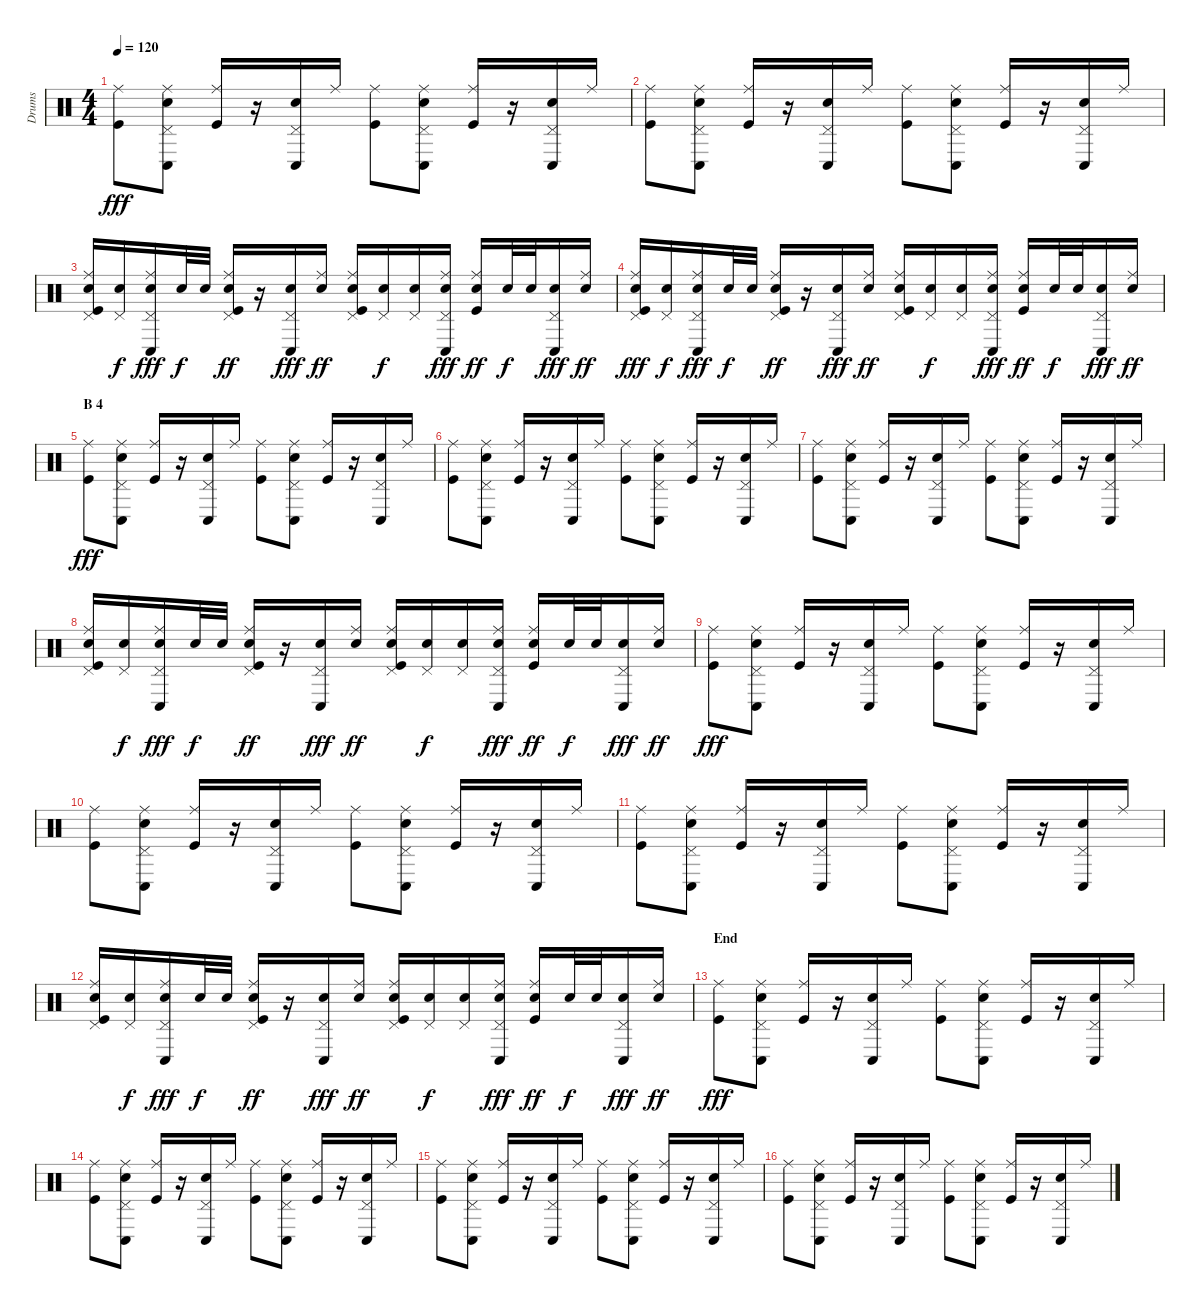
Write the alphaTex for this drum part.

\track ("Drums" "Drums") {instrument percussion}
\staff {score}
\articulation defaults
\ts (4 4)
\tempo 120
\clef neutral
\ks c
("Ride (middle)" "Kick (hit)").8{dy fff} ("Ride (middle)" "Pedal Hi-Hat (hit)" "Conga low (hit)" "Electric Snare (hit)").8 ("Ride (middle)" "Kick (hit)").16 r.16 ("Pedal Hi-Hat (hit)" "Conga low (hit)" "Electric Snare (hit)").16 "Ride (middle)".16 ("Ride (middle)" "Kick (hit)").8 ("Ride (middle)" "Pedal Hi-Hat (hit)" "Conga low (hit)" "Electric Snare (hit)").8 ("Ride (middle)" "Kick (hit)").16 r.16 ("Pedal Hi-Hat (hit)" "Conga low (hit)" "Electric Snare (hit)").16 "Ride (middle)".16 |
("Ride (middle)" "Kick (hit)").8 ("Ride (middle)" "Pedal Hi-Hat (hit)" "Conga low (hit)" "Electric Snare (hit)").8 ("Ride (middle)" "Kick (hit)").16 r.16 ("Pedal Hi-Hat (hit)" "Conga low (hit)" "Electric Snare (hit)").16 "Ride (middle)".16 ("Ride (middle)" "Kick (hit)").8 ("Ride (middle)" "Pedal Hi-Hat (hit)" "Conga low (hit)" "Electric Snare (hit)").8 ("Ride (middle)" "Kick (hit)").16 r.16 ("Pedal Hi-Hat (hit)" "Conga low (hit)" "Electric Snare (hit)").16 "Ride (middle)".16 |
("Ride (middle)" "Pedal Hi-Hat (hit)" "Electric Snare (hit)" "Kick (hit)").16 ("Pedal Hi-Hat (hit)" "Electric Snare (hit)").16{dy f} ("Ride (middle)" "Pedal Hi-Hat (hit)" "Conga low (hit)" "Electric Snare (hit)").16{dy fff} "Electric Snare (hit)".32{dy f} "Electric Snare (hit)".32 ("Ride (middle)" "Pedal Hi-Hat (hit)" "Electric Snare (hit)" "Kick (hit)").16{dy ff} r.16 ("Pedal Hi-Hat (hit)" "Conga low (hit)" "Electric Snare (hit)").16{dy fff} ("Ride (middle)" "Electric Snare (hit)").16{dy ff} ("Ride (middle)" "Pedal Hi-Hat (hit)" "Electric Snare (hit)" "Kick (hit)").16 ("Pedal Hi-Hat (hit)" "Electric Snare (hit)").16{dy f} ("Pedal Hi-Hat (hit)" "Electric Snare (hit)").16 ("Ride (middle)" "Pedal Hi-Hat (hit)" "Conga low (hit)" "Electric Snare (hit)").16{dy fff} ("Ride (middle)" "Electric Snare (hit)" "Kick (hit)").16{dy ff} "Electric Snare (hit)".32{dy f} "Electric Snare (hit)".32 ("Pedal Hi-Hat (hit)" "Conga low (hit)" "Electric Snare (hit)").16{dy fff} ("Ride (middle)" "Electric Snare (hit)").16{dy ff} |
("Ride (middle)" "Pedal Hi-Hat (hit)" "Electric Snare (hit)" "Kick (hit)").16{dy fff} ("Pedal Hi-Hat (hit)" "Electric Snare (hit)").16{dy f} ("Ride (middle)" "Pedal Hi-Hat (hit)" "Conga low (hit)" "Electric Snare (hit)").16{dy fff} "Electric Snare (hit)".32{dy f} "Electric Snare (hit)".32 ("Ride (middle)" "Pedal Hi-Hat (hit)" "Electric Snare (hit)" "Kick (hit)").16{dy ff} r.16 ("Pedal Hi-Hat (hit)" "Conga low (hit)" "Electric Snare (hit)").16{dy fff} ("Ride (middle)" "Electric Snare (hit)").16{dy ff} ("Ride (middle)" "Pedal Hi-Hat (hit)" "Electric Snare (hit)" "Kick (hit)").16 ("Pedal Hi-Hat (hit)" "Electric Snare (hit)").16{dy f} ("Pedal Hi-Hat (hit)" "Electric Snare (hit)").16 ("Ride (middle)" "Pedal Hi-Hat (hit)" "Conga low (hit)" "Electric Snare (hit)").16{dy fff} ("Ride (middle)" "Electric Snare (hit)" "Kick (hit)").16{dy ff} "Electric Snare (hit)".32{dy f} "Electric Snare (hit)".32 ("Pedal Hi-Hat (hit)" "Conga low (hit)" "Electric Snare (hit)").16{dy fff} ("Ride (middle)" "Electric Snare (hit)").16{dy ff} |
\section ("" "B 4")
("Ride (middle)" "Kick (hit)").8{dy fff} ("Ride (middle)" "Pedal Hi-Hat (hit)" "Conga low (hit)" "Electric Snare (hit)").8 ("Ride (middle)" "Kick (hit)").16 r.16 ("Pedal Hi-Hat (hit)" "Conga low (hit)" "Electric Snare (hit)").16 "Ride (middle)".16 ("Ride (middle)" "Kick (hit)").8 ("Ride (middle)" "Pedal Hi-Hat (hit)" "Conga low (hit)" "Electric Snare (hit)").8 ("Ride (middle)" "Kick (hit)").16 r.16 ("Pedal Hi-Hat (hit)" "Conga low (hit)" "Electric Snare (hit)").16 "Ride (middle)".16 |
("Ride (middle)" "Kick (hit)").8 ("Ride (middle)" "Pedal Hi-Hat (hit)" "Conga low (hit)" "Electric Snare (hit)").8 ("Ride (middle)" "Kick (hit)").16 r.16 ("Pedal Hi-Hat (hit)" "Conga low (hit)" "Electric Snare (hit)").16 "Ride (middle)".16 ("Ride (middle)" "Kick (hit)").8 ("Ride (middle)" "Pedal Hi-Hat (hit)" "Conga low (hit)" "Electric Snare (hit)").8 ("Ride (middle)" "Kick (hit)").16 r.16 ("Pedal Hi-Hat (hit)" "Conga low (hit)" "Electric Snare (hit)").16 "Ride (middle)".16 |
("Ride (middle)" "Kick (hit)").8 ("Ride (middle)" "Pedal Hi-Hat (hit)" "Conga low (hit)" "Electric Snare (hit)").8 ("Ride (middle)" "Kick (hit)").16 r.16 ("Pedal Hi-Hat (hit)" "Conga low (hit)" "Electric Snare (hit)").16 "Ride (middle)".16 ("Ride (middle)" "Kick (hit)").8 ("Ride (middle)" "Pedal Hi-Hat (hit)" "Conga low (hit)" "Electric Snare (hit)").8 ("Ride (middle)" "Kick (hit)").16 r.16 ("Pedal Hi-Hat (hit)" "Conga low (hit)" "Electric Snare (hit)").16 "Ride (middle)".16 |
("Ride (middle)" "Pedal Hi-Hat (hit)" "Electric Snare (hit)" "Kick (hit)").16 ("Pedal Hi-Hat (hit)" "Electric Snare (hit)").16{dy f} ("Ride (middle)" "Pedal Hi-Hat (hit)" "Conga low (hit)" "Electric Snare (hit)").16{dy fff} "Electric Snare (hit)".32{dy f} "Electric Snare (hit)".32 ("Ride (middle)" "Pedal Hi-Hat (hit)" "Electric Snare (hit)" "Kick (hit)").16{dy ff} r.16 ("Pedal Hi-Hat (hit)" "Conga low (hit)" "Electric Snare (hit)").16{dy fff} ("Ride (middle)" "Electric Snare (hit)").16{dy ff} ("Ride (middle)" "Pedal Hi-Hat (hit)" "Electric Snare (hit)" "Kick (hit)").16 ("Pedal Hi-Hat (hit)" "Electric Snare (hit)").16{dy f} ("Pedal Hi-Hat (hit)" "Electric Snare (hit)").16 ("Ride (middle)" "Pedal Hi-Hat (hit)" "Conga low (hit)" "Electric Snare (hit)").16{dy fff} ("Ride (middle)" "Electric Snare (hit)" "Kick (hit)").16{dy ff} "Electric Snare (hit)".32{dy f} "Electric Snare (hit)".32 ("Pedal Hi-Hat (hit)" "Conga low (hit)" "Electric Snare (hit)").16{dy fff} ("Ride (middle)" "Electric Snare (hit)").16{dy ff} |
("Ride (middle)" "Kick (hit)").8{dy fff} ("Ride (middle)" "Pedal Hi-Hat (hit)" "Conga low (hit)" "Electric Snare (hit)").8 ("Ride (middle)" "Kick (hit)").16 r.16 ("Pedal Hi-Hat (hit)" "Conga low (hit)" "Electric Snare (hit)").16 "Ride (middle)".16 ("Ride (middle)" "Kick (hit)").8 ("Ride (middle)" "Pedal Hi-Hat (hit)" "Conga low (hit)" "Electric Snare (hit)").8 ("Ride (middle)" "Kick (hit)").16 r.16 ("Pedal Hi-Hat (hit)" "Conga low (hit)" "Electric Snare (hit)").16 "Ride (middle)".16 |
("Ride (middle)" "Kick (hit)").8 ("Ride (middle)" "Pedal Hi-Hat (hit)" "Conga low (hit)" "Electric Snare (hit)").8 ("Ride (middle)" "Kick (hit)").16 r.16 ("Pedal Hi-Hat (hit)" "Conga low (hit)" "Electric Snare (hit)").16 "Ride (middle)".16 ("Ride (middle)" "Kick (hit)").8 ("Ride (middle)" "Pedal Hi-Hat (hit)" "Conga low (hit)" "Electric Snare (hit)").8 ("Ride (middle)" "Kick (hit)").16 r.16 ("Pedal Hi-Hat (hit)" "Conga low (hit)" "Electric Snare (hit)").16 "Ride (middle)".16 |
("Ride (middle)" "Kick (hit)").8 ("Ride (middle)" "Pedal Hi-Hat (hit)" "Conga low (hit)" "Electric Snare (hit)").8 ("Ride (middle)" "Kick (hit)").16 r.16 ("Pedal Hi-Hat (hit)" "Conga low (hit)" "Electric Snare (hit)").16 "Ride (middle)".16 ("Ride (middle)" "Kick (hit)").8 ("Ride (middle)" "Pedal Hi-Hat (hit)" "Conga low (hit)" "Electric Snare (hit)").8 ("Ride (middle)" "Kick (hit)").16 r.16 ("Pedal Hi-Hat (hit)" "Conga low (hit)" "Electric Snare (hit)").16 "Ride (middle)".16 |
("Ride (middle)" "Pedal Hi-Hat (hit)" "Electric Snare (hit)" "Kick (hit)").16 ("Pedal Hi-Hat (hit)" "Electric Snare (hit)").16{dy f} ("Ride (middle)" "Pedal Hi-Hat (hit)" "Conga low (hit)" "Electric Snare (hit)").16{dy fff} "Electric Snare (hit)".32{dy f} "Electric Snare (hit)".32 ("Ride (middle)" "Pedal Hi-Hat (hit)" "Electric Snare (hit)" "Kick (hit)").16{dy ff} r.16 ("Pedal Hi-Hat (hit)" "Conga low (hit)" "Electric Snare (hit)").16{dy fff} ("Ride (middle)" "Electric Snare (hit)").16{dy ff} ("Ride (middle)" "Pedal Hi-Hat (hit)" "Electric Snare (hit)" "Kick (hit)").16 ("Pedal Hi-Hat (hit)" "Electric Snare (hit)").16{dy f} ("Pedal Hi-Hat (hit)" "Electric Snare (hit)").16 ("Ride (middle)" "Pedal Hi-Hat (hit)" "Conga low (hit)" "Electric Snare (hit)").16{dy fff} ("Ride (middle)" "Electric Snare (hit)" "Kick (hit)").16{dy ff} "Electric Snare (hit)".32{dy f} "Electric Snare (hit)".32 ("Pedal Hi-Hat (hit)" "Conga low (hit)" "Electric Snare (hit)").16{dy fff} ("Ride (middle)" "Electric Snare (hit)").16{dy ff} |
\section ("" "End")
("Ride (middle)" "Kick (hit)").8{dy fff} ("Ride (middle)" "Pedal Hi-Hat (hit)" "Conga low (hit)" "Electric Snare (hit)").8 ("Ride (middle)" "Kick (hit)").16 r.16 ("Pedal Hi-Hat (hit)" "Conga low (hit)" "Electric Snare (hit)").16 "Ride (middle)".16 ("Ride (middle)" "Kick (hit)").8 ("Ride (middle)" "Pedal Hi-Hat (hit)" "Conga low (hit)" "Electric Snare (hit)").8 ("Ride (middle)" "Kick (hit)").16 r.16 ("Pedal Hi-Hat (hit)" "Conga low (hit)" "Electric Snare (hit)").16 "Ride (middle)".16 |
("Ride (middle)" "Kick (hit)").8 ("Ride (middle)" "Pedal Hi-Hat (hit)" "Conga low (hit)" "Electric Snare (hit)").8 ("Ride (middle)" "Kick (hit)").16 r.16 ("Pedal Hi-Hat (hit)" "Conga low (hit)" "Electric Snare (hit)").16 "Ride (middle)".16 ("Ride (middle)" "Kick (hit)").8 ("Ride (middle)" "Pedal Hi-Hat (hit)" "Conga low (hit)" "Electric Snare (hit)").8 ("Ride (middle)" "Kick (hit)").16 r.16 ("Pedal Hi-Hat (hit)" "Conga low (hit)" "Electric Snare (hit)").16 "Ride (middle)".16 |
("Ride (middle)" "Kick (hit)").8 ("Ride (middle)" "Pedal Hi-Hat (hit)" "Conga low (hit)" "Electric Snare (hit)").8 ("Ride (middle)" "Kick (hit)").16 r.16 ("Pedal Hi-Hat (hit)" "Conga low (hit)" "Electric Snare (hit)").16 "Ride (middle)".16 ("Ride (middle)" "Kick (hit)").8 ("Ride (middle)" "Pedal Hi-Hat (hit)" "Conga low (hit)" "Electric Snare (hit)").8 ("Ride (middle)" "Kick (hit)").16 r.16 ("Pedal Hi-Hat (hit)" "Conga low (hit)" "Electric Snare (hit)").16 "Ride (middle)".16 |
("Ride (middle)" "Kick (hit)").8 ("Ride (middle)" "Pedal Hi-Hat (hit)" "Conga low (hit)" "Electric Snare (hit)").8 ("Ride (middle)" "Kick (hit)").16 r.16 ("Pedal Hi-Hat (hit)" "Conga low (hit)" "Electric Snare (hit)").16 "Ride (middle)".16 ("Ride (middle)" "Kick (hit)").8 ("Ride (middle)" "Pedal Hi-Hat (hit)" "Conga low (hit)" "Electric Snare (hit)").8 ("Ride (middle)" "Kick (hit)").16 r.16 ("Pedal Hi-Hat (hit)" "Conga low (hit)" "Electric Snare (hit)").16 "Ride (middle)".16
